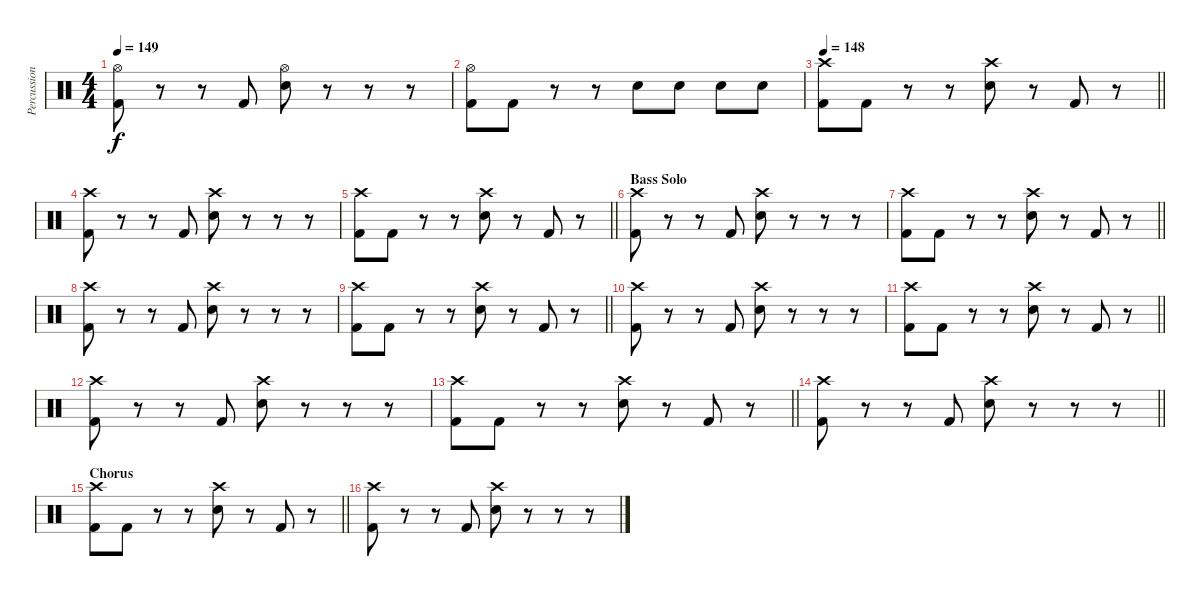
\track ("Percussion" "Percussion") {instrument percussion}
\staff {score}
\articulation defaults
\ts (4 4)
\tempo 149
\clef neutral
\ks c
("Hi-Hat (open)" "Kick (hit) 2").8{dy f} r.8 r.8 "Kick (hit) 2".8 ("Hi-Hat (open)" "Snare (hit) 2").8 r.8 r.8 r.8 |
("Hi-Hat (open)" "Kick (hit) 2").8 "Kick (hit) 2".8 r.8 r.8 "Snare (hit) 2".8 "Snare (hit) 2".8 "Snare (hit) 2".8 "Snare (hit) 2".8 |
\tempo 148
\barLineRight lightlight
("Crash high (hit)" "Kick (hit) 2").8 "Kick (hit) 2".8 r.8 r.8 ("Crash high (hit)" "Snare (hit) 2").8 r.8 "Kick (hit) 2".8 r.8 |
("Crash high (hit)" "Kick (hit) 2").8 r.8 r.8 "Kick (hit) 2".8 ("Crash high (hit)" "Snare (hit) 2").8 r.8 r.8 r.8 |
\barLineRight lightlight
("Crash high (hit)" "Kick (hit) 2").8 "Kick (hit) 2".8 r.8 r.8 ("Crash high (hit)" "Snare (hit) 2").8 r.8 "Kick (hit) 2".8 r.8 |
\section ("" "Bass Solo")
("Crash high (hit)" "Kick (hit) 2").8 r.8 r.8 "Kick (hit) 2".8 ("Crash high (hit)" "Snare (hit) 2").8 r.8 r.8 r.8 |
\barLineRight lightlight
("Crash high (hit)" "Kick (hit) 2").8 "Kick (hit) 2".8 r.8 r.8 ("Crash high (hit)" "Snare (hit) 2").8 r.8 "Kick (hit) 2".8 r.8 |
("Crash high (hit)" "Kick (hit) 2").8 r.8 r.8 "Kick (hit) 2".8 ("Crash high (hit)" "Snare (hit) 2").8 r.8 r.8 r.8 |
\barLineRight lightlight
("Crash high (hit)" "Kick (hit) 2").8 "Kick (hit) 2".8 r.8 r.8 ("Crash high (hit)" "Snare (hit) 2").8 r.8 "Kick (hit) 2".8 r.8 |
("Crash high (hit)" "Kick (hit) 2").8 r.8 r.8 "Kick (hit) 2".8 ("Crash high (hit)" "Snare (hit) 2").8 r.8 r.8 r.8 |
\barLineRight lightlight
("Crash high (hit)" "Kick (hit) 2").8 "Kick (hit) 2".8 r.8 r.8 ("Crash high (hit)" "Snare (hit) 2").8 r.8 "Kick (hit) 2".8 r.8 |
("Crash high (hit)" "Kick (hit) 2").8 r.8 r.8 "Kick (hit) 2".8 ("Crash high (hit)" "Snare (hit) 2").8 r.8 r.8 r.8 |
\barLineRight lightlight
("Crash high (hit)" "Kick (hit) 2").8 "Kick (hit) 2".8 r.8 r.8 ("Crash high (hit)" "Snare (hit) 2").8 r.8 "Kick (hit) 2".8 r.8 |
\barLineRight lightlight
("Crash high (hit)" "Kick (hit) 2").8 r.8 r.8 "Kick (hit) 2".8 ("Crash high (hit)" "Snare (hit) 2").8 r.8 r.8 r.8 |
\section ("" "Chorus")
\barLineRight lightlight
("Crash high (hit)" "Kick (hit) 2").8 "Kick (hit) 2".8 r.8 r.8 ("Crash high (hit)" "Snare (hit) 2").8 r.8 "Kick (hit) 2".8 r.8 |
("Crash high (hit)" "Kick (hit) 2").8 r.8 r.8 "Kick (hit) 2".8 ("Crash high (hit)" "Snare (hit) 2").8 r.8 r.8 r.8
